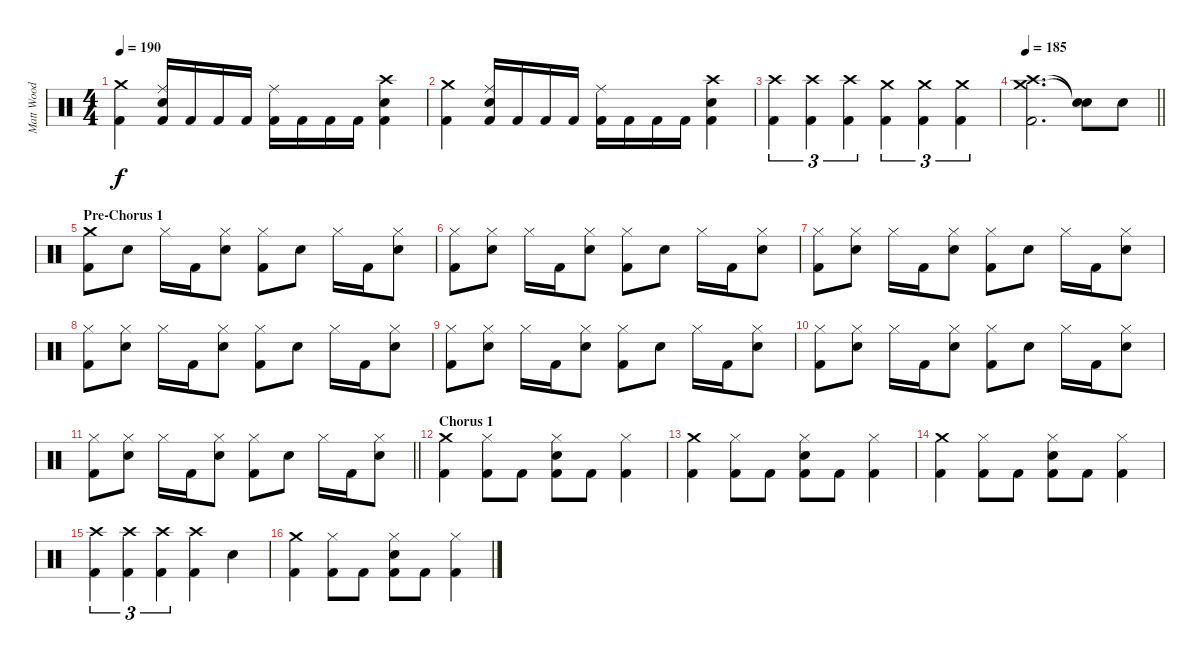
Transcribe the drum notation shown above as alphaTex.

\track ("Matt Wood" "Matt Wood") {instrument percussion}
\staff {score}
\articulation defaults
\ts (4 4)
\tempo 190
\clef neutral
\ks c
("Crash medium (hit)" "Kick (hit) 2").4{dy f} ("Ride (middle)" "Snare (hit) 2" "Kick (hit) 2").16 "Kick (hit) 2".16 "Kick (hit) 2".16 "Kick (hit) 2".16 ("Ride (middle)" "Kick (hit) 2").16 "Kick (hit) 2".16 "Kick (hit) 2".16 "Kick (hit) 2".16 ("Crash high (hit)" "Snare (hit) 2" "Kick (hit) 2").4 |
("Crash medium (hit)" "Kick (hit) 2").4 ("Ride (middle)" "Snare (hit) 2" "Kick (hit) 2").16 "Kick (hit) 2".16 "Kick (hit) 2".16 "Kick (hit) 2".16 ("Ride (middle)" "Kick (hit) 2").16 "Kick (hit) 2".16 "Kick (hit) 2".16 "Kick (hit) 2".16 ("Crash high (hit)" "Snare (hit) 2" "Kick (hit) 2").4 |
("Crash high (hit)" "Kick (hit) 2").4{tu (3 2)} ("Crash high (hit)" "Kick (hit) 2").4{tu (3 2)} ("Crash high (hit)" "Kick (hit) 2").4{tu (3 2)} ("Crash medium (hit)" "Kick (hit) 2").4{tu (3 2)} ("Crash medium (hit)" "Kick (hit) 2").4{tu (3 2)} ("Crash medium (hit)" "Kick (hit) 2").4{tu (3 2)} |
\tempo 185
\barLineRight lightlight
("Crash medium (hit)" "Crash high (hit)" "Kick (hit) 2").2{d} ("Snare (hit)"{t} "Snare (hit)"{t}).8 "Snare (hit) 2".8 |
\section ("" "Pre-Chorus 1")
("Crash medium (hit)" "Kick (hit) 2").8 "Snare (hit) 2".8 "Hi-Hat (closed)".16 "Kick (hit) 2".16 ("Hi-Hat (closed)" "Snare (hit) 2").8 ("Hi-Hat (closed)" "Kick (hit) 2").8 "Snare (hit) 2".8 "Hi-Hat (closed)".16 "Kick (hit) 2".16 ("Hi-Hat (closed)" "Snare (hit) 2").8 |
("Hi-Hat (closed)" "Kick (hit) 2").8 ("Hi-Hat (closed)" "Snare (hit) 2").8 "Hi-Hat (closed)".16 "Kick (hit) 2".16 ("Hi-Hat (closed)" "Snare (hit) 2").8 ("Hi-Hat (closed)" "Kick (hit) 2").8 "Snare (hit) 2".8 "Hi-Hat (closed)".16 "Kick (hit) 2".16 ("Hi-Hat (closed)" "Snare (hit) 2").8 |
("Hi-Hat (closed)" "Kick (hit) 2").8 ("Hi-Hat (closed)" "Snare (hit) 2").8 "Hi-Hat (closed)".16 "Kick (hit) 2".16 ("Hi-Hat (closed)" "Snare (hit) 2").8 ("Hi-Hat (closed)" "Kick (hit) 2").8 "Snare (hit) 2".8 "Hi-Hat (closed)".16 "Kick (hit) 2".16 ("Hi-Hat (closed)" "Snare (hit) 2").8 |
("Hi-Hat (closed)" "Kick (hit) 2").8 ("Hi-Hat (closed)" "Snare (hit) 2").8 "Hi-Hat (closed)".16 "Kick (hit) 2".16 ("Hi-Hat (closed)" "Snare (hit) 2").8 ("Hi-Hat (closed)" "Kick (hit) 2").8 "Snare (hit) 2".8 "Hi-Hat (closed)".16 "Kick (hit) 2".16 ("Hi-Hat (closed)" "Snare (hit) 2").8 |
("Hi-Hat (closed)" "Kick (hit) 2").8 ("Hi-Hat (closed)" "Snare (hit) 2").8 "Hi-Hat (closed)".16 "Kick (hit) 2".16 ("Hi-Hat (closed)" "Snare (hit) 2").8 ("Hi-Hat (closed)" "Kick (hit) 2").8 "Snare (hit) 2".8 "Hi-Hat (closed)".16 "Kick (hit) 2".16 ("Hi-Hat (closed)" "Snare (hit) 2").8 |
("Hi-Hat (closed)" "Kick (hit) 2").8 ("Hi-Hat (closed)" "Snare (hit) 2").8 "Hi-Hat (closed)".16 "Kick (hit) 2".16 ("Hi-Hat (closed)" "Snare (hit) 2").8 ("Hi-Hat (closed)" "Kick (hit) 2").8 "Snare (hit) 2".8 "Hi-Hat (closed)".16 "Kick (hit) 2".16 ("Hi-Hat (closed)" "Snare (hit) 2").8 |
\barLineRight lightlight
("Hi-Hat (closed)" "Kick (hit) 2").8 ("Hi-Hat (closed)" "Snare (hit) 2").8 "Hi-Hat (closed)".16 "Kick (hit) 2".16 ("Hi-Hat (closed)" "Snare (hit) 2").8 ("Hi-Hat (closed)" "Kick (hit) 2").8 "Snare (hit) 2".8 "Hi-Hat (closed)".16 "Kick (hit) 2".16 ("Hi-Hat (closed)" "Snare (hit) 2").8 |
\section ("" "Chorus 1")
("Crash medium (hit)" "Kick (hit) 2").4 ("Hi-Hat (closed)" "Kick (hit) 2").8 "Kick (hit) 2".8 ("Hi-Hat (closed)" "Snare (hit) 2" "Kick (hit) 2").8 "Kick (hit) 2".8 ("Hi-Hat (closed)" "Kick (hit) 2").4 |
("Crash medium (hit)" "Kick (hit) 2").4 ("Hi-Hat (closed)" "Kick (hit) 2").8 "Kick (hit) 2".8 ("Hi-Hat (closed)" "Snare (hit) 2" "Kick (hit) 2").8 "Kick (hit) 2".8 ("Hi-Hat (closed)" "Kick (hit) 2").4 |
("Crash medium (hit)" "Kick (hit) 2").4 ("Hi-Hat (closed)" "Kick (hit) 2").8 "Kick (hit) 2".8 ("Hi-Hat (closed)" "Snare (hit) 2" "Kick (hit) 2").8 "Kick (hit) 2".8 ("Hi-Hat (closed)" "Kick (hit) 2").4 |
("Crash high (hit)" "Kick (hit) 2").4{tu (3 2)} ("Crash high (hit)" "Kick (hit) 2").4{tu (3 2)} ("Crash high (hit)" "Kick (hit) 2").4{tu (3 2)} ("Crash high (hit)" "Kick (hit) 2").4 "Snare (hit) 2".4 |
("Crash medium (hit)" "Kick (hit) 2").4 ("Hi-Hat (closed)" "Kick (hit) 2").8 "Kick (hit) 2".8 ("Hi-Hat (closed)" "Snare (hit) 2" "Kick (hit) 2").8 "Kick (hit) 2".8 ("Hi-Hat (closed)" "Kick (hit) 2").4
